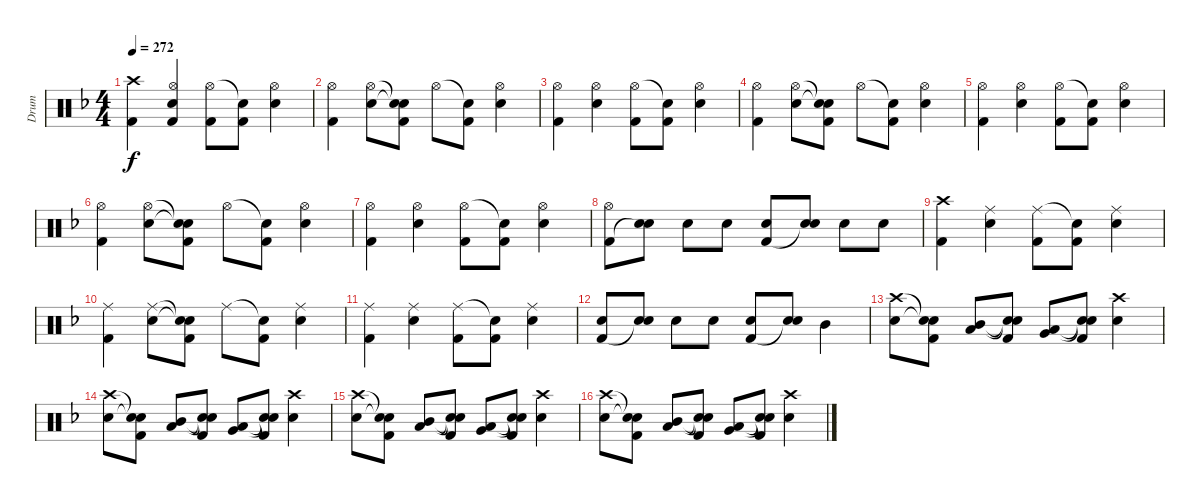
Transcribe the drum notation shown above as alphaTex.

\track ("Drum" "Drum") {instrument percussion}
\staff {score}
\articulation defaults
\ts (4 4)
\tempo 272
\clef neutral
\ks f
("Crash high (hit)" "Kick (hit) 2").4{dy f} ("Hi-Hat (open)" "Electric Snare (hit)" "Kick (hit) 2").4 ("Hi-Hat (open)" "Kick (hit) 2").8 ("Snare (hit)"{t} "Kick (hit) 2").8 ("Hi-Hat (open)" "Electric Snare (hit)").4 |
("Hi-Hat (open)" "Kick (hit) 2").4 ("Hi-Hat (open)" "Electric Snare (hit)").8 ("Snare (hit)"{t} "Snare (hit)"{t} "Kick (hit) 2").8 "Hi-Hat (open)".8 ("Snare (hit)"{t} "Kick (hit) 2").8 ("Hi-Hat (open)" "Electric Snare (hit)").4 |
("Hi-Hat (open)" "Kick (hit) 2").4 ("Hi-Hat (open)" "Electric Snare (hit)").4 ("Hi-Hat (open)" "Kick (hit) 2").8 ("Snare (hit)"{t} "Kick (hit) 2").8 ("Hi-Hat (open)" "Electric Snare (hit)").4 |
("Hi-Hat (open)" "Kick (hit) 2").4 ("Hi-Hat (open)" "Electric Snare (hit)").8 ("Snare (hit)"{t} "Snare (hit)"{t} "Kick (hit) 2").8 "Hi-Hat (open)".8 ("Snare (hit)"{t} "Kick (hit) 2").8 ("Hi-Hat (open)" "Electric Snare (hit)").4 |
("Hi-Hat (open)" "Kick (hit) 2").4 ("Hi-Hat (open)" "Electric Snare (hit)").4 ("Hi-Hat (open)" "Kick (hit) 2").8 ("Snare (hit)"{t} "Kick (hit) 2").8 ("Hi-Hat (open)" "Electric Snare (hit)").4 |
("Hi-Hat (open)" "Kick (hit) 2").4 ("Hi-Hat (open)" "Electric Snare (hit)").8 ("Snare (hit)"{t} "Snare (hit)"{t} "Kick (hit) 2").8 "Hi-Hat (open)".8 ("Snare (hit)"{t} "Kick (hit) 2").8 ("Hi-Hat (open)" "Electric Snare (hit)").4 |
("Hi-Hat (open)" "Kick (hit) 2").4 ("Hi-Hat (open)" "Electric Snare (hit)").4 ("Hi-Hat (open)" "Kick (hit) 2").8 ("Snare (hit)"{t} "Kick (hit) 2").8 ("Hi-Hat (open)" "Electric Snare (hit)").4 |
("Hi-Hat (open)" "Kick (hit) 2").8 ("Electric Snare (hit)" "Snare (hit)"{t}).8 "Electric Snare (hit)".8 "Electric Snare (hit)".8 ("Electric Snare (hit)" "Kick (hit) 2").8 ("Electric Snare (hit)" "Snare (hit)"{t}).8 "Electric Snare (hit)".8 "Electric Snare (hit)".8 |
("Crash high (hit)" "Kick (hit) 2").4 ("Ride (middle)" "Electric Snare (hit)").4 ("Ride (middle)" "Kick (hit) 2").8 ("Snare (hit)"{t} "Kick (hit) 2").8 ("Ride (middle)" "Electric Snare (hit)").4 |
("Ride (middle)" "Kick (hit) 2").4 ("Ride (middle)" "Electric Snare (hit)").8 ("Snare (hit)"{t} "Snare (hit)"{t} "Kick (hit) 2").8 "Ride (middle)".8 ("Snare (hit)"{t} "Kick (hit) 2").8 ("Ride (middle)" "Electric Snare (hit)").4 |
("Ride (middle)" "Kick (hit) 2").4 ("Ride (middle)" "Electric Snare (hit)").4 ("Ride (middle)" "Kick (hit) 2").8 ("Snare (hit)"{t} "Kick (hit) 2").8 ("Ride (middle)" "Electric Snare (hit)").4 |
("Electric Snare (hit)" "Kick (hit) 2").8 ("Electric Snare (hit)" "Snare (hit)"{t}).8 "Electric Snare (hit)".8 "Electric Snare (hit)".8 ("Electric Snare (hit)" "Kick (hit) 2").8 ("Electric Snare (hit)" "Snare (hit)"{t}).8 "Mid Tom (hit)".4 |
("Crash high (hit)" "Electric Snare (hit)").8 ("Snare (hit)"{t} "Snare (hit)"{t} "Kick (hit) 2").8 ("Mid Tom (hit)" "Low Tom (hit)").8 ("Snare (hit)"{t} "Snare (hit)"{t} "Kick (hit) 2").8 ("Low Tom (hit)" "Very Low Tom (hit)").8 ("Snare (hit)"{t} "Snare (hit)"{t} "Kick (hit) 2").8 ("Crash high (hit)" "Electric Snare (hit)").4 |
("Crash high (hit)" "Electric Snare (hit)").8 ("Snare (hit)"{t} "Snare (hit)"{t} "Kick (hit) 2").8 ("Mid Tom (hit)" "Low Tom (hit)").8 ("Snare (hit)"{t} "Snare (hit)"{t} "Kick (hit) 2").8 ("Low Tom (hit)" "Very Low Tom (hit)").8 ("Snare (hit)"{t} "Snare (hit)"{t} "Kick (hit) 2").8 ("Crash high (hit)" "Electric Snare (hit)").4 |
("Crash high (hit)" "Electric Snare (hit)").8 ("Snare (hit)"{t} "Snare (hit)"{t} "Kick (hit) 2").8 ("Mid Tom (hit)" "Low Tom (hit)").8 ("Snare (hit)"{t} "Snare (hit)"{t} "Kick (hit) 2").8 ("Low Tom (hit)" "Very Low Tom (hit)").8 ("Snare (hit)"{t} "Snare (hit)"{t} "Kick (hit) 2").8 ("Crash high (hit)" "Electric Snare (hit)").4 |
("Crash high (hit)" "Electric Snare (hit)").8 ("Snare (hit)"{t} "Snare (hit)"{t} "Kick (hit) 2").8 ("Mid Tom (hit)" "Low Tom (hit)").8 ("Snare (hit)"{t} "Snare (hit)"{t} "Kick (hit) 2").8 ("Low Tom (hit)" "Very Low Tom (hit)").8 ("Snare (hit)"{t} "Snare (hit)"{t} "Kick (hit) 2").8 ("Crash high (hit)" "Electric Snare (hit)").4
